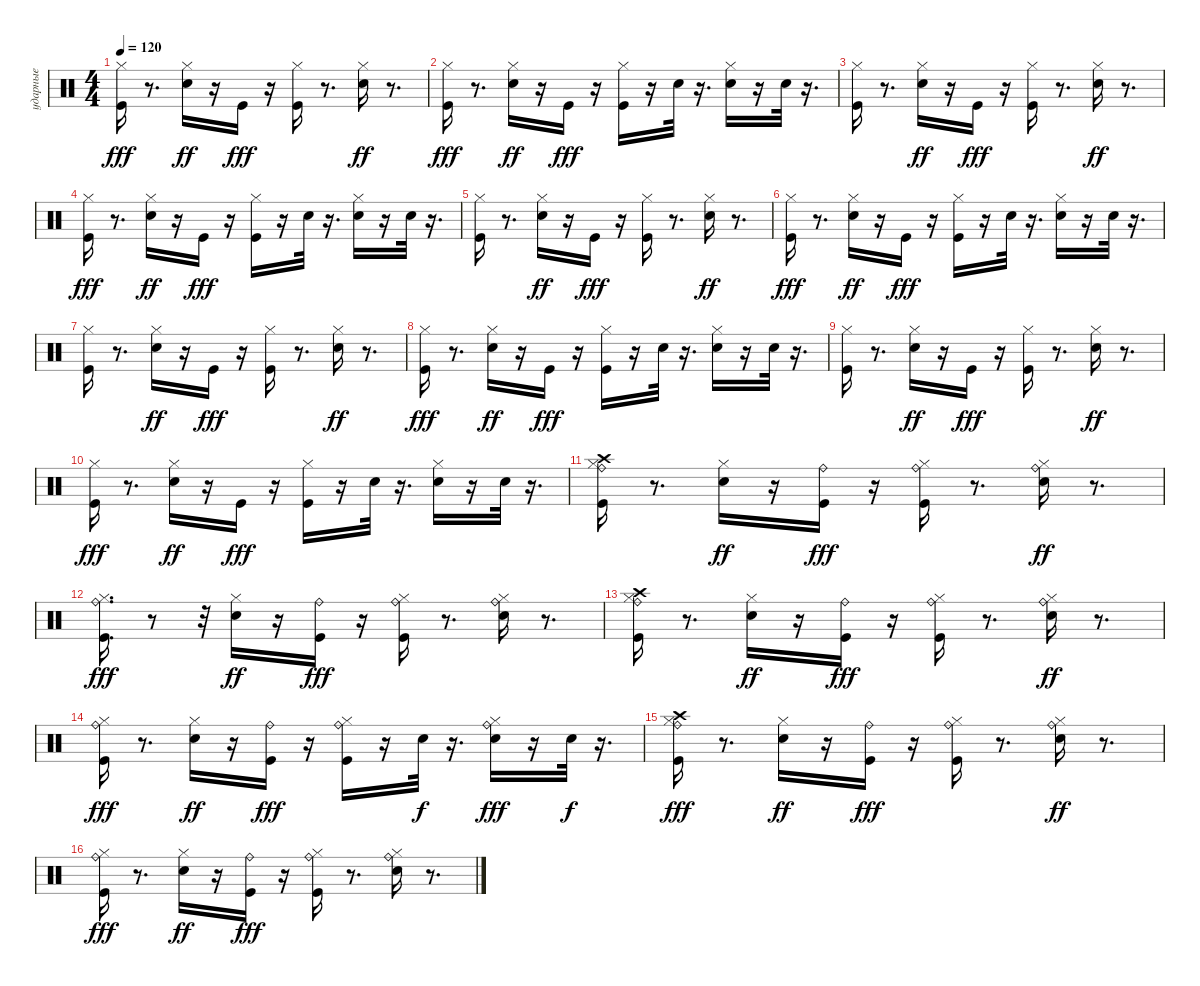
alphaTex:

\track ("ударные" "ударные") {instrument percussion}
\staff {score}
\articulation defaults
\ts (4 4)
\tempo 120
\clef neutral
\ks c
("Hi-Hat (closed)" "Kick (hit)").16{dy fff} r.8{d} ("Electric Snare (hit)" "Hi-Hat (closed)").16{dy ff} r.16 "Kick (hit)".16{dy fff} r.16 ("Kick (hit)" "Hi-Hat (closed)").16 r.8{d} ("Electric Snare (hit)" "Hi-Hat (closed)").16{dy ff} r.8{d} |
("Hi-Hat (closed)" "Kick (hit)").16{dy fff} r.8{d} ("Electric Snare (hit)" "Hi-Hat (closed)").16{dy ff} r.16 "Kick (hit)".16{dy fff} r.16 ("Kick (hit)" "Hi-Hat (closed)").16 r.16 "Electric Snare (hit)".32 r.16{d} ("Electric Snare (hit)" "Hi-Hat (closed)").16 r.16 "Electric Snare (hit)".32 r.16{d} |
("Hi-Hat (closed)" "Kick (hit)").16 r.8{d} ("Electric Snare (hit)" "Hi-Hat (closed)").16{dy ff} r.16 "Kick (hit)".16{dy fff} r.16 ("Kick (hit)" "Hi-Hat (closed)").16 r.8{d} ("Electric Snare (hit)" "Hi-Hat (closed)").16{dy ff} r.8{d} |
("Hi-Hat (closed)" "Kick (hit)").16{dy fff} r.8{d} ("Electric Snare (hit)" "Hi-Hat (closed)").16{dy ff} r.16 "Kick (hit)".16{dy fff} r.16 ("Kick (hit)" "Hi-Hat (closed)").16 r.16 "Electric Snare (hit)".32 r.16{d} ("Electric Snare (hit)" "Hi-Hat (closed)").16 r.16 "Electric Snare (hit)".32 r.16{d} |
("Hi-Hat (closed)" "Kick (hit)").16 r.8{d} ("Electric Snare (hit)" "Hi-Hat (closed)").16{dy ff} r.16 "Kick (hit)".16{dy fff} r.16 ("Kick (hit)" "Hi-Hat (closed)").16 r.8{d} ("Electric Snare (hit)" "Hi-Hat (closed)").16{dy ff} r.8{d} |
("Hi-Hat (closed)" "Kick (hit)").16{dy fff} r.8{d} ("Electric Snare (hit)" "Hi-Hat (closed)").16{dy ff} r.16 "Kick (hit)".16{dy fff} r.16 ("Kick (hit)" "Hi-Hat (closed)").16 r.16 "Electric Snare (hit)".32 r.16{d} ("Electric Snare (hit)" "Hi-Hat (closed)").16 r.16 "Electric Snare (hit)".32 r.16{d} |
("Hi-Hat (closed)" "Kick (hit)").16 r.8{d} ("Electric Snare (hit)" "Hi-Hat (closed)").16{dy ff} r.16 "Kick (hit)".16{dy fff} r.16 ("Kick (hit)" "Hi-Hat (closed)").16 r.8{d} ("Electric Snare (hit)" "Hi-Hat (closed)").16{dy ff} r.8{d} |
("Hi-Hat (closed)" "Kick (hit)").16{dy fff} r.8{d} ("Electric Snare (hit)" "Hi-Hat (closed)").16{dy ff} r.16 "Kick (hit)".16{dy fff} r.16 ("Kick (hit)" "Hi-Hat (closed)").16 r.16 "Electric Snare (hit)".32 r.16{d} ("Electric Snare (hit)" "Hi-Hat (closed)").16 r.16 "Electric Snare (hit)".32 r.16{d} |
("Hi-Hat (closed)" "Kick (hit)").16 r.8{d} ("Electric Snare (hit)" "Hi-Hat (closed)").16{dy ff} r.16 "Kick (hit)".16{dy fff} r.16 ("Kick (hit)" "Hi-Hat (closed)").16 r.8{d} ("Electric Snare (hit)" "Hi-Hat (closed)").16{dy ff} r.8{d} |
("Hi-Hat (closed)" "Kick (hit)").16{dy fff} r.8{d} ("Electric Snare (hit)" "Hi-Hat (closed)").16{dy ff} r.16 "Kick (hit)".16{dy fff} r.16 ("Kick (hit)" "Hi-Hat (closed)").16 r.16 "Electric Snare (hit)".32 r.16{d} ("Electric Snare (hit)" "Hi-Hat (closed)").16 r.16 "Electric Snare (hit)".32 r.16{d} |
("Ride (bell)" "Crash high (hit)" "Hi-Hat (closed)" "Kick (hit)").16 r.8{d} ("Electric Snare (hit)" "Hi-Hat (closed)").16{dy ff} r.16 ("Ride (bell)" "Kick (hit)").16{dy fff} r.16 ("Ride (bell)" "Kick (hit)" "Hi-Hat (closed)").16 r.8{d} ("Ride (bell)" "Electric Snare (hit)" "Hi-Hat (closed)").16{dy ff} r.8{d} |
("Ride (bell)" "Kick (hit)" "Hi-Hat (closed)").16{d dy fff} r.8 r.32 ("Electric Snare (hit)" "Hi-Hat (closed)").16{dy ff} r.16 ("Ride (bell)" "Kick (hit)").16{dy fff} r.16 ("Ride (bell)" "Kick (hit)" "Hi-Hat (closed)").16 r.8{d} ("Ride (bell)" "Electric Snare (hit)" "Hi-Hat (closed)").16 r.8{d} |
("Ride (bell)" "Crash high (hit)" "Hi-Hat (closed)" "Kick (hit)").16 r.8{d} ("Electric Snare (hit)" "Hi-Hat (closed)").16{dy ff} r.16 ("Ride (bell)" "Kick (hit)").16{dy fff} r.16 ("Ride (bell)" "Kick (hit)" "Hi-Hat (closed)").16 r.8{d} ("Ride (bell)" "Electric Snare (hit)" "Hi-Hat (closed)").16{dy ff} r.8{d} |
("Ride (bell)" "Hi-Hat (closed)" "Kick (hit)").16{dy fff} r.8{d} ("Electric Snare (hit)" "Hi-Hat (closed)").16{dy ff} r.16 ("Ride (bell)" "Kick (hit)").16{dy fff} r.16 ("Ride (bell)" "Kick (hit)" "Hi-Hat (closed)").16 r.16 "Electric Snare (hit)".32{dy f} r.16{d} ("Ride (bell)" "Electric Snare (hit)" "Hi-Hat (closed)").16{dy fff} r.16 "Electric Snare (hit)".32{dy f} r.16{d} |
("Ride (bell)" "Crash high (hit)" "Hi-Hat (closed)" "Kick (hit)").16{dy fff} r.8{d} ("Electric Snare (hit)" "Hi-Hat (closed)").16{dy ff} r.16 ("Ride (bell)" "Kick (hit)").16{dy fff} r.16 ("Ride (bell)" "Kick (hit)" "Hi-Hat (closed)").16 r.8{d} ("Ride (bell)" "Electric Snare (hit)" "Hi-Hat (closed)").16{dy ff} r.8{d} |
("Ride (bell)" "Hi-Hat (closed)" "Kick (hit)").16{dy fff} r.8{d} ("Electric Snare (hit)" "Hi-Hat (closed)").16{dy ff} r.16 ("Ride (bell)" "Kick (hit)").16{dy fff} r.16 ("Ride (bell)" "Kick (hit)" "Hi-Hat (closed)").16 r.8{d} ("Ride (bell)" "Electric Snare (hit)" "Hi-Hat (closed)").16 r.8{d}
